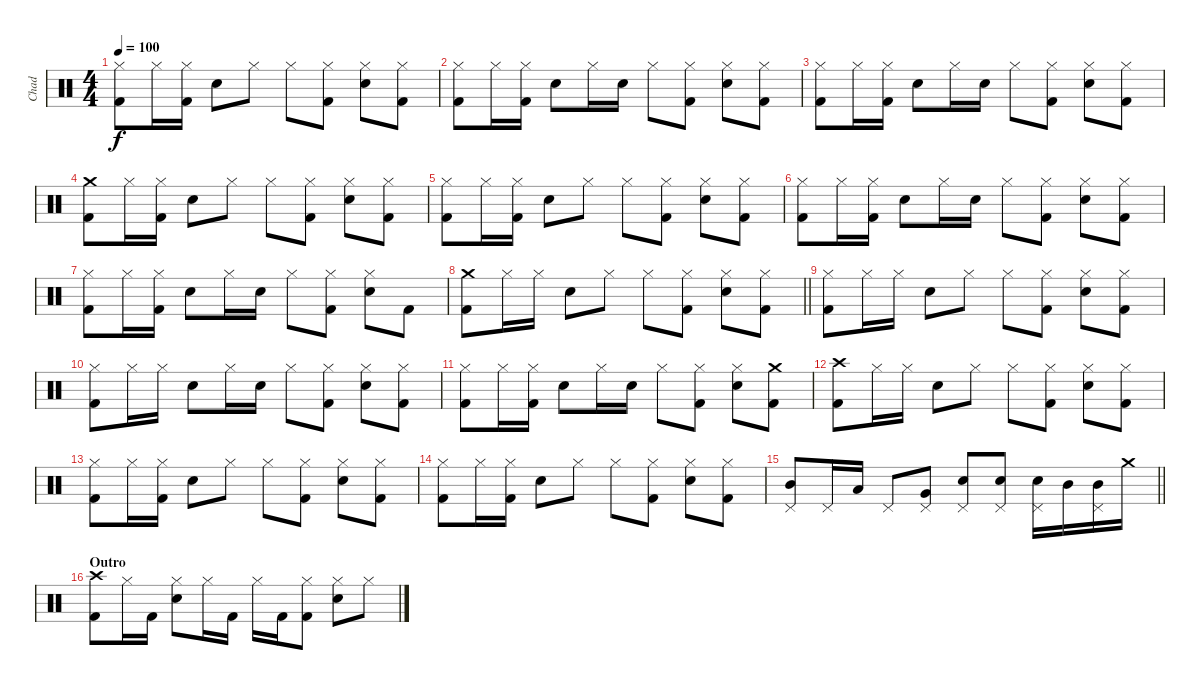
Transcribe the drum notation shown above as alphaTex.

\track ("Chad" "Chad") {instrument percussion}
\staff {score}
\articulation defaults
\ts (4 4)
\tempo 100
\clef neutral
\ks c
("Hi-Hat (closed)" "Kick (hit) 2").8{dy f} "Hi-Hat (closed)".16 ("Hi-Hat (closed)" "Kick (hit) 2").16 "Electric Snare (hit)".8 "Hi-Hat (closed)".8 "Hi-Hat (closed)".8 ("Hi-Hat (closed)" "Kick (hit) 2").8 ("Hi-Hat (closed)" "Electric Snare (hit)").8 ("Hi-Hat (closed)" "Kick (hit) 2").8 |
("Hi-Hat (closed)" "Kick (hit) 2").8 "Hi-Hat (closed)".16 ("Hi-Hat (closed)" "Kick (hit) 2").16 "Electric Snare (hit)".8 "Hi-Hat (closed)".16 "Electric Snare (hit)".16 "Hi-Hat (closed)".8 ("Hi-Hat (closed)" "Kick (hit) 2").8 ("Hi-Hat (closed)" "Electric Snare (hit)").8 ("Hi-Hat (closed)" "Kick (hit) 2").8 |
("Hi-Hat (closed)" "Kick (hit) 2").8 "Hi-Hat (closed)".16 ("Hi-Hat (closed)" "Kick (hit) 2").16 "Electric Snare (hit)".8 "Hi-Hat (closed)".16 "Electric Snare (hit)".16 "Hi-Hat (closed)".8 ("Hi-Hat (closed)" "Kick (hit) 2").8 ("Hi-Hat (closed)" "Electric Snare (hit)").8 ("Hi-Hat (closed)" "Kick (hit) 2").8 |
("Crash medium (hit)" "Kick (hit) 2").8 "Hi-Hat (closed)".16 ("Hi-Hat (closed)" "Kick (hit) 2").16 "Electric Snare (hit)".8 "Hi-Hat (closed)".8 "Hi-Hat (closed)".8 ("Hi-Hat (closed)" "Kick (hit) 2").8 ("Hi-Hat (closed)" "Electric Snare (hit)").8 ("Hi-Hat (closed)" "Kick (hit) 2").8 |
("Hi-Hat (closed)" "Kick (hit) 2").8 "Hi-Hat (closed)".16 ("Hi-Hat (closed)" "Kick (hit) 2").16 "Electric Snare (hit)".8 "Hi-Hat (closed)".8 "Hi-Hat (closed)".8 ("Hi-Hat (closed)" "Kick (hit) 2").8 ("Hi-Hat (closed)" "Electric Snare (hit)").8 ("Hi-Hat (closed)" "Kick (hit) 2").8 |
("Hi-Hat (closed)" "Kick (hit) 2").8 "Hi-Hat (closed)".16 ("Hi-Hat (closed)" "Kick (hit) 2").16 "Electric Snare (hit)".8 "Hi-Hat (closed)".16 "Electric Snare (hit)".16 "Hi-Hat (closed)".8 ("Hi-Hat (closed)" "Kick (hit) 2").8 ("Hi-Hat (closed)" "Electric Snare (hit)").8 ("Hi-Hat (closed)" "Kick (hit) 2").8 |
("Hi-Hat (closed)" "Kick (hit) 2").8 "Hi-Hat (closed)".16 ("Hi-Hat (closed)" "Kick (hit) 2").16 "Electric Snare (hit)".8 "Hi-Hat (closed)".16 "Electric Snare (hit)".16 "Hi-Hat (closed)".8 ("Hi-Hat (closed)" "Kick (hit) 2").8 ("Hi-Hat (closed)" "Electric Snare (hit)").8 "Kick (hit) 2".8 |
\barLineRight lightlight
("Crash medium (hit)" "Kick (hit) 2").8 "Hi-Hat (closed)".16 "Hi-Hat (closed)".16 "Electric Snare (hit)".8 "Hi-Hat (closed)".8 "Hi-Hat (closed)".8 ("Hi-Hat (closed)" "Kick (hit) 2").8 ("Hi-Hat (closed)" "Electric Snare (hit)").8 ("Hi-Hat (closed)" "Kick (hit) 2").8 |
("Hi-Hat (closed)" "Kick (hit) 2").8 "Hi-Hat (closed)".16 "Hi-Hat (closed)".16 "Electric Snare (hit)".8 "Hi-Hat (closed)".8 "Hi-Hat (closed)".8 ("Hi-Hat (closed)" "Kick (hit) 2").8 ("Hi-Hat (closed)" "Electric Snare (hit)").8 ("Hi-Hat (closed)" "Kick (hit) 2").8 |
("Hi-Hat (closed)" "Kick (hit) 2").8 "Hi-Hat (closed)".16 "Hi-Hat (closed)".16 "Electric Snare (hit)".8 "Hi-Hat (closed)".16 "Electric Snare (hit)".16 "Hi-Hat (closed)".8 ("Hi-Hat (closed)" "Kick (hit) 2").8 ("Hi-Hat (closed)" "Electric Snare (hit)").8 ("Hi-Hat (closed)" "Kick (hit) 2").8 |
("Hi-Hat (closed)" "Kick (hit) 2").8 "Hi-Hat (closed)".16 ("Hi-Hat (closed)" "Kick (hit) 2").16 "Electric Snare (hit)".8 "Hi-Hat (closed)".16 "Electric Snare (hit)".16 "Hi-Hat (closed)".8 ("Hi-Hat (closed)" "Kick (hit) 2").8 ("Hi-Hat (closed)" "Electric Snare (hit)").8 ("Crash medium (hit)" "Kick (hit) 2").8 |
("Crash high (hit)" "Kick (hit) 2").8 "Hi-Hat (closed)".16 "Hi-Hat (closed)".16 "Electric Snare (hit)".8 "Hi-Hat (closed)".8 "Hi-Hat (closed)".8 ("Hi-Hat (closed)" "Kick (hit) 2").8 ("Hi-Hat (closed)" "Electric Snare (hit)").8 ("Hi-Hat (closed)" "Kick (hit) 2").8 |
("Hi-Hat (closed)" "Kick (hit) 2").8 "Hi-Hat (closed)".16 ("Hi-Hat (closed)" "Kick (hit) 2").16 "Electric Snare (hit)".8 "Hi-Hat (closed)".8 "Hi-Hat (closed)".8 ("Hi-Hat (closed)" "Kick (hit) 2").8 ("Hi-Hat (closed)" "Electric Snare (hit)").8 ("Hi-Hat (closed)" "Kick (hit) 2").8 |
("Hi-Hat (closed)" "Kick (hit) 2").8 "Hi-Hat (closed)".16 ("Hi-Hat (closed)" "Kick (hit) 2").16 "Electric Snare (hit)".8 "Hi-Hat (closed)".8 "Hi-Hat (closed)".8 ("Hi-Hat (closed)" "Kick (hit) 2").8 ("Hi-Hat (closed)" "Electric Snare (hit)").8 ("Hi-Hat (closed)" "Kick (hit) 2").8 |
\barLineRight lightlight
("Mid Tom (hit)" "Pedal Hi-Hat (hit)").8 "Pedal Hi-Hat (hit)".16 "Low Tom (hit)".16 "Pedal Hi-Hat (hit)".8 ("Very Low Tom (hit)" "Pedal Hi-Hat (hit)").8 ("Electric Snare (hit)" "Pedal Hi-Hat (hit)").8 ("Electric Snare (hit)" "Pedal Hi-Hat (hit)").8 ("Electric Snare (hit)" "Pedal Hi-Hat (hit)").16 "Mid Tom (hit)".16 ("Mid Tom (hit)" "Pedal Hi-Hat (hit)").16 "Crash medium (hit)".16 |
\section ("" "Outro")
("Crash high (hit)" "Kick (hit) 2").8 "Hi-Hat (closed)".16 "Kick (hit) 2".16 ("Hi-Hat (closed)" "Electric Snare (hit)").8 "Hi-Hat (closed)".16 "Kick (hit) 2".16 "Hi-Hat (closed)".16 "Kick (hit) 2".16 ("Hi-Hat (closed)" "Kick (hit) 2").8 ("Hi-Hat (closed)" "Electric Snare (hit)").8 "Hi-Hat (closed)".8
